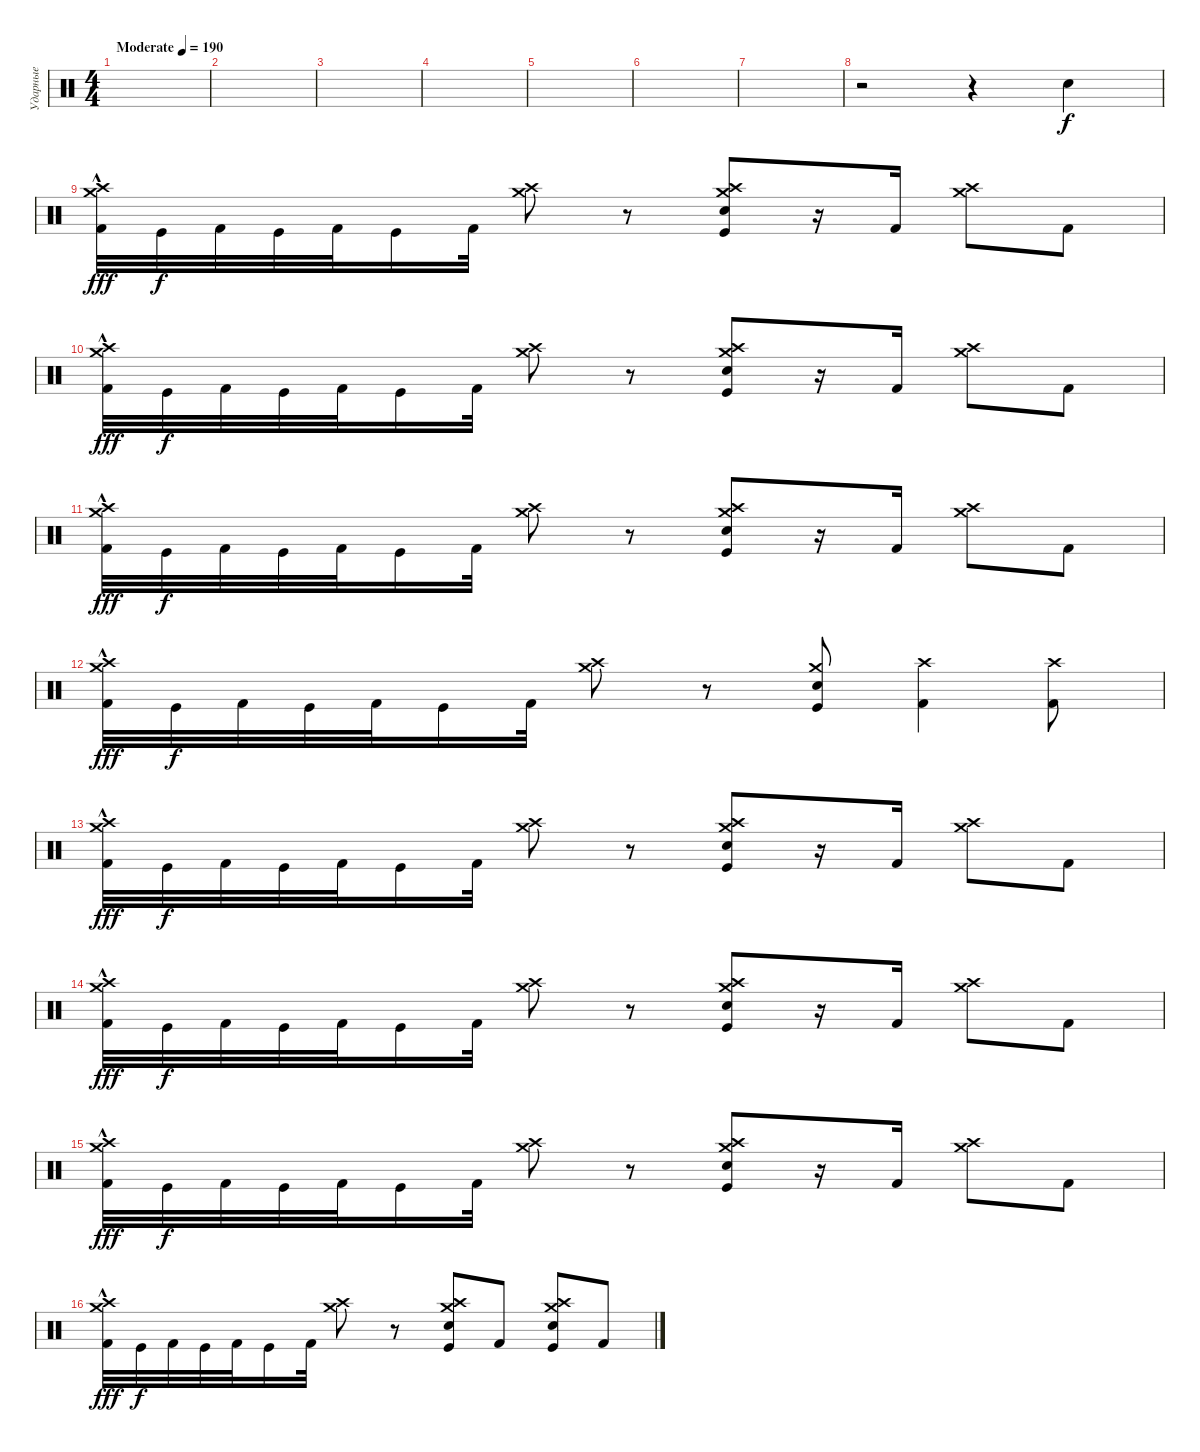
\track ("Ударные" "Ударные") {instrument percussion}
\staff {score}
\articulation defaults
\ts (4 4)
\tempo (190 "Moderate")
\clef neutral
\ks c
|
|
|
|
|
|
|
r.2 r.4 "Electric Snare (hit)".4 |
("Crash high (hit)"{hac} "Crash medium (hit)" "Kick (hit) 2").32{dy fff} "Kick (hit)".32{dy f} "Kick (hit) 2".32 "Kick (hit)".32 "Kick (hit) 2".32 "Kick (hit)".16 "Kick (hit) 2".32 ("Crash high (hit)" "Crash medium (hit)").8 r.8 ("Crash high (hit)" "Crash medium (hit)" "Electric Snare (hit)" "Kick (hit)").8 r.16 "Kick (hit) 2".16 ("Crash high (hit)" "Crash medium (hit)").8 "Kick (hit) 2".8 |
("Crash high (hit)"{hac} "Crash medium (hit)" "Kick (hit) 2").32{dy fff} "Kick (hit)".32{dy f} "Kick (hit) 2".32 "Kick (hit)".32 "Kick (hit) 2".32 "Kick (hit)".16 "Kick (hit) 2".32 ("Crash high (hit)" "Crash medium (hit)").8 r.8 ("Crash high (hit)" "Crash medium (hit)" "Electric Snare (hit)" "Kick (hit)").8 r.16 "Kick (hit) 2".16 ("Crash high (hit)" "Crash medium (hit)").8 "Kick (hit) 2".8 |
("Crash high (hit)"{hac} "Crash medium (hit)" "Kick (hit) 2").32{dy fff} "Kick (hit)".32{dy f} "Kick (hit) 2".32 "Kick (hit)".32 "Kick (hit) 2".32 "Kick (hit)".16 "Kick (hit) 2".32 ("Crash high (hit)" "Crash medium (hit)").8 r.8 ("Crash medium (hit)" "Crash high (hit)" "Electric Snare (hit)" "Kick (hit)").8 r.16 "Kick (hit) 2".16 ("Crash medium (hit)" "Crash high (hit)").8 "Kick (hit) 2".8 |
("Crash high (hit)"{hac} "Crash medium (hit)" "Kick (hit) 2").32{dy fff} "Kick (hit)".32{dy f} "Kick (hit) 2".32 "Kick (hit)".32 "Kick (hit) 2".32 "Kick (hit)".16 "Kick (hit) 2".32 ("Crash medium (hit)" "Crash high (hit)").8 r.8 ("Crash medium (hit)" "Electric Snare (hit)" "Kick (hit)").8 ("Crash high (hit)" "Kick (hit) 2").4 ("Crash high (hit)" "Kick (hit) 2").8 |
("Crash high (hit)"{hac} "Crash medium (hit)" "Kick (hit) 2").32{dy fff} "Kick (hit)".32{dy f} "Kick (hit) 2".32 "Kick (hit)".32 "Kick (hit) 2".32 "Kick (hit)".16 "Kick (hit) 2".32 ("Crash high (hit)" "Crash medium (hit)").8 r.8 ("Crash high (hit)" "Crash medium (hit)" "Electric Snare (hit)" "Kick (hit)").8 r.16 "Kick (hit) 2".16 ("Crash high (hit)" "Crash medium (hit)").8 "Kick (hit) 2".8 |
("Crash high (hit)"{hac} "Crash medium (hit)" "Kick (hit) 2").32{dy fff} "Kick (hit)".32{dy f} "Kick (hit) 2".32 "Kick (hit)".32 "Kick (hit) 2".32 "Kick (hit)".16 "Kick (hit) 2".32 ("Crash high (hit)" "Crash medium (hit)").8 r.8 ("Crash high (hit)" "Crash medium (hit)" "Electric Snare (hit)" "Kick (hit)").8 r.16 "Kick (hit) 2".16 ("Crash high (hit)" "Crash medium (hit)").8 "Kick (hit) 2".8 |
("Crash high (hit)"{hac} "Crash medium (hit)" "Kick (hit) 2").32{dy fff} "Kick (hit)".32{dy f} "Kick (hit) 2".32 "Kick (hit)".32 "Kick (hit) 2".32 "Kick (hit)".16 "Kick (hit) 2".32 ("Crash medium (hit)" "Crash high (hit)").8 r.8 ("Crash high (hit)" "Crash medium (hit)" "Electric Snare (hit)" "Kick (hit)").8 r.16 "Kick (hit) 2".16 ("Crash medium (hit)" "Crash high (hit)").8 "Kick (hit) 2".8 |
("Crash high (hit)"{hac} "Crash medium (hit)" "Kick (hit) 2").32{dy fff} "Kick (hit)".32{dy f} "Kick (hit) 2".32 "Kick (hit)".32 "Kick (hit) 2".32 "Kick (hit)".16 "Kick (hit) 2".32 ("Crash medium (hit)" "Crash high (hit)").8 r.8 ("Crash high (hit)" "Crash medium (hit)" "Electric Snare (hit)" "Kick (hit)").8 "Kick (hit) 2".8 ("Crash medium (hit)" "Crash high (hit)" "Electric Snare (hit)" "Kick (hit)").8 "Kick (hit) 2".8
